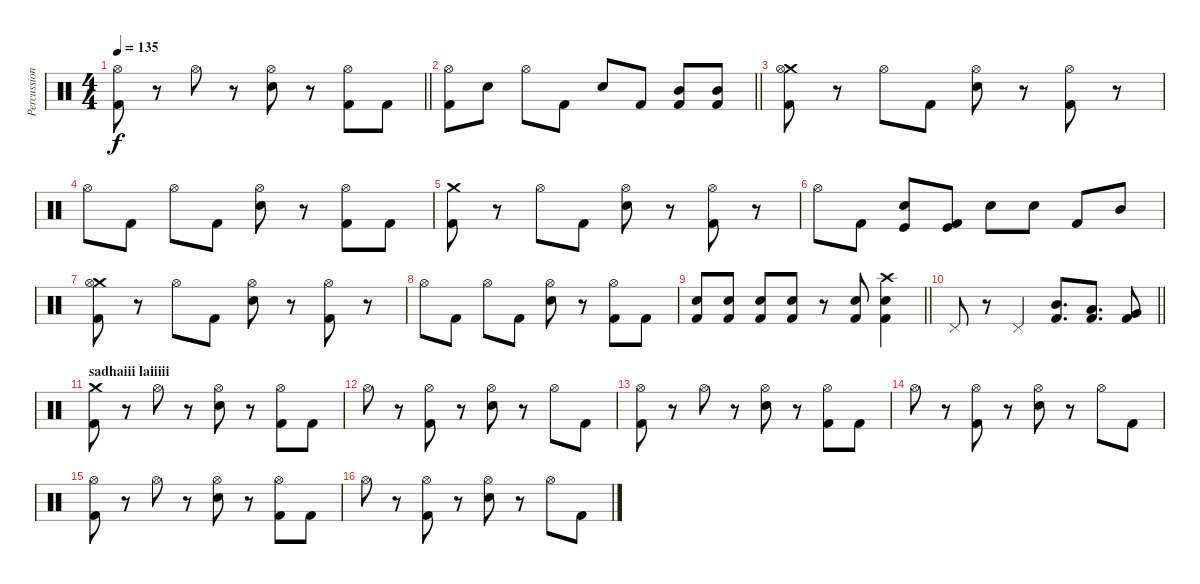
\track ("Percussion" "Percussion") {instrument percussion}
\staff {score}
\articulation defaults
\ts (4 4)
\tempo 135
\clef neutral
\barLineRight lightlight
\ks c
("Hi-Hat (open)" "Kick (hit) 2").8{dy f} r.8 "Hi-Hat (open)".8 r.8 ("Hi-Hat (open)" "Electric Snare (hit)").8 r.8 ("Hi-Hat (open)" "Kick (hit) 2").8 "Kick (hit) 2".8 |
\barLineRight lightlight
("Hi-Hat (open)" "Kick (hit) 2").8 "Electric Snare (hit)".8 "Hi-Hat (open)".8 "Kick (hit) 2".8 "Electric Snare (hit)".8 "Kick (hit) 2".8 ("Mid Tom (hit)" "Kick (hit) 2").8 ("Mid Tom (hit)" "Kick (hit) 2").8 |
("Crash medium (hit)" "Hi-Hat (open)" "Kick (hit) 2").8 r.8 "Hi-Hat (open)".8 "Kick (hit) 2".8 ("Hi-Hat (open)" "Electric Snare (hit)").8 r.8 ("Hi-Hat (open)" "Kick (hit) 2").8 r.8 |
"Hi-Hat (open)".8 "Kick (hit) 2".8 "Hi-Hat (open)".8 "Kick (hit) 2".8 ("Hi-Hat (open)" "Electric Snare (hit)").8 r.8 ("Hi-Hat (open)" "Kick (hit) 2").8 "Kick (hit) 2".8 |
("Crash medium (hit)" "Kick (hit) 2").8 r.8 "Hi-Hat (open)".8 "Kick (hit) 2".8 ("Hi-Hat (open)" "Electric Snare (hit)").8 r.8 ("Hi-Hat (open)" "Kick (hit) 2").8 r.8 |
"Hi-Hat (open)".8 "Kick (hit) 2".8 ("Kick (hit)" "Electric Snare (hit)").8 ("Kick (hit)" "Kick (hit) 2").8 "Electric Snare (hit)".8 "Electric Snare (hit)".8 "Kick (hit) 2".8 "Mid Tom (hit)".8 |
("Crash medium (hit)" "Hi-Hat (open)" "Kick (hit) 2").8 r.8 "Hi-Hat (open)".8 "Kick (hit) 2".8 ("Hi-Hat (open)" "Electric Snare (hit)").8 r.8 ("Hi-Hat (open)" "Kick (hit) 2").8 r.8 |
"Hi-Hat (open)".8 "Kick (hit) 2".8 "Hi-Hat (open)".8 "Kick (hit) 2".8 ("Hi-Hat (open)" "Electric Snare (hit)").8 r.8 ("Hi-Hat (open)" "Kick (hit) 2").8 "Kick (hit) 2".8 |
\barLineRight lightlight
("Electric Snare (hit)" "Kick (hit) 2").8 ("Electric Snare (hit)" "Kick (hit) 2").8 ("Electric Snare (hit)" "Kick (hit) 2").8 ("Electric Snare (hit)" "Kick (hit) 2").8 r.8 ("Electric Snare (hit)" "Kick (hit) 2").8 ("Crash high (hit)" "Electric Snare (hit)" "Kick (hit) 2").4 |
\barLineRight lightlight "Pedal Hi-Hat (hit)".8
r.8 "Pedal Hi-Hat (hit)".4 ("Kick (hit) 2" "Mid Tom (hit)").8{d} ("Kick (hit) 2" "Low Tom (hit)").8{d} ("Kick (hit) 2" "Very Low Tom (hit)").8 |
\section ("" "sadhaiii laiiiii")
("Crash medium (hit)" "Kick (hit) 2").8 r.8 "Hi-Hat (open)".8 r.8 ("Hi-Hat (open)" "Electric Snare (hit)").8 r.8 ("Hi-Hat (open)" "Kick (hit) 2").8 "Kick (hit) 2".8 |
"Hi-Hat (open)".8 r.8 ("Hi-Hat (open)" "Kick (hit) 2").8 r.8 ("Hi-Hat (open)" "Electric Snare (hit)").8 r.8 "Hi-Hat (open)".8 "Kick (hit) 2".8 |
("Hi-Hat (open)" "Kick (hit) 2").8 r.8 "Hi-Hat (open)".8 r.8 ("Hi-Hat (open)" "Electric Snare (hit)").8 r.8 ("Hi-Hat (open)" "Kick (hit) 2").8 "Kick (hit) 2".8 |
"Hi-Hat (open)".8 r.8 ("Hi-Hat (open)" "Kick (hit) 2").8 r.8 ("Hi-Hat (open)" "Electric Snare (hit)").8 r.8 "Hi-Hat (open)".8 "Kick (hit) 2".8 |
("Hi-Hat (open)" "Kick (hit) 2").8 r.8 "Hi-Hat (open)".8 r.8 ("Hi-Hat (open)" "Electric Snare (hit)").8 r.8 ("Hi-Hat (open)" "Kick (hit) 2").8 "Kick (hit) 2".8 |
"Hi-Hat (open)".8 r.8 ("Hi-Hat (open)" "Kick (hit) 2").8 r.8 ("Hi-Hat (open)" "Electric Snare (hit)").8 r.8 "Hi-Hat (open)".8 "Kick (hit) 2".8
